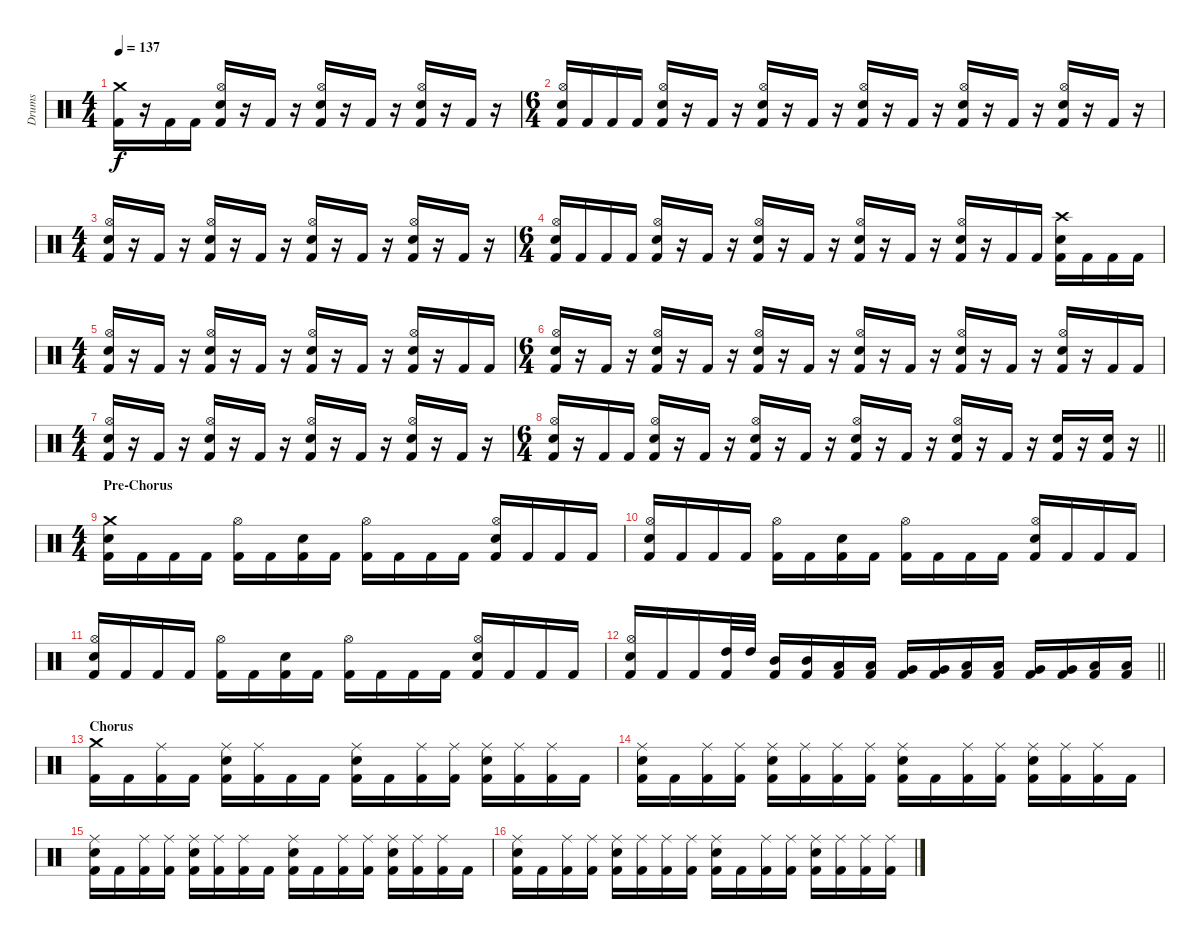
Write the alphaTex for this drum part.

\track ("Drums" "Drums") {instrument percussion}
\staff {score}
\articulation defaults
\ts (4 4)
\section ("" "")
\tempo 137
\clef neutral
\ks c
("Crash medium (hit)" "Kick (hit) 2").16{dy f} r.16 "Kick (hit) 2".16 "Kick (hit) 2".16 ("Hi-Hat (open)" "Electric Snare (hit)" "Kick (hit) 2").16 r.16 "Kick (hit) 2".16 r.16 ("Hi-Hat (open)" "Electric Snare (hit)" "Kick (hit) 2").16 r.16 "Kick (hit) 2".16 r.16 ("Hi-Hat (open)" "Electric Snare (hit)" "Kick (hit) 2").16 r.16 "Kick (hit) 2".16 r.16 |
\ts (6 4)
("Hi-Hat (open)" "Electric Snare (hit)" "Kick (hit) 2").16 "Kick (hit) 2".16 "Kick (hit) 2".16 "Kick (hit) 2".16 ("Hi-Hat (open)" "Electric Snare (hit)" "Kick (hit) 2").16 r.16 "Kick (hit) 2".16 r.16 ("Hi-Hat (open)" "Electric Snare (hit)" "Kick (hit) 2").16 r.16 "Kick (hit) 2".16 r.16 ("Hi-Hat (open)" "Electric Snare (hit)" "Kick (hit) 2").16 r.16 "Kick (hit) 2".16 r.16 ("Hi-Hat (open)" "Electric Snare (hit)" "Kick (hit) 2").16 r.16 "Kick (hit) 2".16 r.16 ("Hi-Hat (open)" "Electric Snare (hit)" "Kick (hit) 2").16 r.16 "Kick (hit) 2".16 r.16 |
\ts (4 4)
("Hi-Hat (open)" "Electric Snare (hit)" "Kick (hit) 2").16 r.16 "Kick (hit) 2".16 r.16 ("Hi-Hat (open)" "Electric Snare (hit)" "Kick (hit) 2").16 r.16 "Kick (hit) 2".16 r.16 ("Hi-Hat (open)" "Electric Snare (hit)" "Kick (hit) 2").16 r.16 "Kick (hit) 2".16 r.16 ("Hi-Hat (open)" "Electric Snare (hit)" "Kick (hit) 2").16 r.16 "Kick (hit) 2".16 r.16 |
\ts (6 4)
("Hi-Hat (open)" "Electric Snare (hit)" "Kick (hit) 2").16 "Kick (hit) 2".16 "Kick (hit) 2".16 "Kick (hit) 2".16 ("Hi-Hat (open)" "Electric Snare (hit)" "Kick (hit) 2").16 r.16 "Kick (hit) 2".16 r.16 ("Hi-Hat (open)" "Electric Snare (hit)" "Kick (hit) 2").16 r.16 "Kick (hit) 2".16 r.16 ("Hi-Hat (open)" "Electric Snare (hit)" "Kick (hit) 2").16 r.16 "Kick (hit) 2".16 r.16 ("Hi-Hat (open)" "Electric Snare (hit)" "Kick (hit) 2").16 r.16 "Kick (hit) 2".16 "Kick (hit) 2".16 ("Crash high (hit)" "Electric Snare (hit)" "Kick (hit) 2").16 "Kick (hit) 2".16 "Kick (hit) 2".16 "Kick (hit) 2".16 |
\ts (4 4)
("Hi-Hat (open)" "Electric Snare (hit)" "Kick (hit) 2").16 r.16 "Kick (hit) 2".16 r.16 ("Hi-Hat (open)" "Electric Snare (hit)" "Kick (hit) 2").16 r.16 "Kick (hit) 2".16 r.16 ("Hi-Hat (open)" "Electric Snare (hit)" "Kick (hit) 2").16 r.16 "Kick (hit) 2".16 r.16 ("Hi-Hat (open)" "Electric Snare (hit)" "Kick (hit) 2").16 r.16 "Kick (hit) 2".16 "Kick (hit) 2".16 |
\ts (6 4)
("Hi-Hat (open)" "Electric Snare (hit)" "Kick (hit) 2").16 r.16 "Kick (hit) 2".16 r.16 ("Hi-Hat (open)" "Electric Snare (hit)" "Kick (hit) 2").16 r.16 "Kick (hit) 2".16 r.16 ("Hi-Hat (open)" "Electric Snare (hit)" "Kick (hit) 2").16 r.16 "Kick (hit) 2".16 r.16 ("Hi-Hat (open)" "Electric Snare (hit)" "Kick (hit) 2").16 r.16 "Kick (hit) 2".16 r.16 ("Hi-Hat (open)" "Electric Snare (hit)" "Kick (hit) 2").16 r.16 "Kick (hit) 2".16 r.16 ("Hi-Hat (open)" "Electric Snare (hit)" "Kick (hit) 2").16 r.16 "Kick (hit) 2".16 "Kick (hit) 2".16 |
\ts (4 4)
("Hi-Hat (open)" "Electric Snare (hit)" "Kick (hit) 2").16 r.16 "Kick (hit) 2".16 r.16 ("Hi-Hat (open)" "Electric Snare (hit)" "Kick (hit) 2").16 r.16 "Kick (hit) 2".16 r.16 ("Hi-Hat (open)" "Electric Snare (hit)" "Kick (hit) 2").16 r.16 "Kick (hit) 2".16 r.16 ("Hi-Hat (open)" "Electric Snare (hit)" "Kick (hit) 2").16 r.16 "Kick (hit) 2".16 r.16 |
\ts (6 4)
\barLineRight lightlight
("Hi-Hat (open)" "Electric Snare (hit)" "Kick (hit) 2").16 r.16 "Kick (hit) 2".16 "Kick (hit) 2".16 ("Hi-Hat (open)" "Electric Snare (hit)" "Kick (hit) 2").16 r.16 "Kick (hit) 2".16 r.16 ("Hi-Hat (open)" "Electric Snare (hit)" "Kick (hit) 2").16 r.16 "Kick (hit) 2".16 r.16 ("Hi-Hat (open)" "Electric Snare (hit)" "Kick (hit) 2").16 r.16 "Kick (hit) 2".16 r.16 ("Hi-Hat (open)" "Electric Snare (hit)" "Kick (hit) 2").16 r.16 "Kick (hit) 2".16 r.16 ("Electric Snare (hit)" "Kick (hit) 2").16 r.16 ("Electric Snare (hit)" "Kick (hit) 2").16 r.16 |
\ts (4 4)
\section ("" "Pre-Chorus")
("Crash medium (hit)" "Electric Snare (hit)" "Kick (hit) 2").16 "Kick (hit) 2".16 "Kick (hit) 2".16 "Kick (hit) 2".16 ("Hi-Hat (open)" "Kick (hit) 2").16 "Kick (hit) 2".16 ("Electric Snare (hit)" "Kick (hit) 2").16 "Kick (hit) 2".16 ("Hi-Hat (open)" "Kick (hit) 2").16 "Kick (hit) 2".16 "Kick (hit) 2".16 "Kick (hit) 2".16 ("Hi-Hat (open)" "Electric Snare (hit)" "Kick (hit) 2").16 "Kick (hit) 2".16 "Kick (hit) 2".16 "Kick (hit) 2".16 |
("Hi-Hat (open)" "Electric Snare (hit)" "Kick (hit) 2").16 "Kick (hit) 2".16 "Kick (hit) 2".16 "Kick (hit) 2".16 ("Hi-Hat (open)" "Kick (hit) 2").16 "Kick (hit) 2".16 ("Electric Snare (hit)" "Kick (hit) 2").16 "Kick (hit) 2".16 ("Hi-Hat (open)" "Kick (hit) 2").16 "Kick (hit) 2".16 "Kick (hit) 2".16 "Kick (hit) 2".16 ("Hi-Hat (open)" "Electric Snare (hit)" "Kick (hit) 2").16 "Kick (hit) 2".16 "Kick (hit) 2".16 "Kick (hit) 2".16 |
("Hi-Hat (open)" "Electric Snare (hit)" "Kick (hit) 2").16 "Kick (hit) 2".16 "Kick (hit) 2".16 "Kick (hit) 2".16 ("Hi-Hat (open)" "Kick (hit) 2").16 "Kick (hit) 2".16 ("Electric Snare (hit)" "Kick (hit) 2").16 "Kick (hit) 2".16 ("Hi-Hat (open)" "Kick (hit) 2").16 "Kick (hit) 2".16 "Kick (hit) 2".16 "Kick (hit) 2".16 ("Hi-Hat (open)" "Electric Snare (hit)" "Kick (hit) 2").16 "Kick (hit) 2".16 "Kick (hit) 2".16 "Kick (hit) 2".16 |
\barLineRight lightlight
("Hi-Hat (open)" "Electric Snare (hit)" "Kick (hit) 2").16 "Kick (hit) 2".16 "Kick (hit) 2".16 ("High Tom (hit)" "Kick (hit) 2").32 "High Tom (hit)".32 ("Mid Tom (hit)" "Kick (hit) 2").16 ("Mid Tom (hit)" "Kick (hit) 2").16 ("Low Tom (hit)" "Kick (hit) 2").16 ("Low Tom (hit)" "Kick (hit) 2").16 ("Very Low Tom (hit)" "Kick (hit) 2").16 ("Very Low Tom (hit)" "Kick (hit) 2").16 ("Low Tom (hit)" "Kick (hit) 2").16 ("Low Tom (hit)" "Kick (hit) 2").16 ("Very Low Tom (hit)" "Kick (hit) 2").16 ("Very Low Tom (hit)" "Kick (hit) 2").16 ("Low Floor Tom (hit)" "Kick (hit) 2").16 ("Low Floor Tom (hit)" "Kick (hit) 2").16 |
\section ("" "Chorus")
("Crash medium (hit)" "Kick (hit) 2").16 "Kick (hit) 2".16 ("Ride (middle)" "Kick (hit) 2").16 "Kick (hit) 2".16 ("Ride (middle)" "Electric Snare (hit)" "Kick (hit) 2").16 ("Ride (middle)" "Kick (hit) 2").16 "Kick (hit) 2".16 "Kick (hit) 2".16 ("Ride (middle)" "Electric Snare (hit)" "Kick (hit) 2").16 "Kick (hit) 2".16 ("Ride (middle)" "Kick (hit) 2").16 ("Ride (middle)" "Kick (hit) 2").16 ("Ride (middle)" "Electric Snare (hit)" "Kick (hit) 2").16 ("Ride (middle)" "Kick (hit) 2").16 ("Ride (middle)" "Kick (hit) 2").16 "Kick (hit) 2".16 |
("Ride (middle)" "Electric Snare (hit)" "Kick (hit) 2").16 "Kick (hit) 2".16 ("Ride (middle)" "Kick (hit) 2").16 ("Ride (middle)" "Kick (hit) 2").16 ("Ride (middle)" "Electric Snare (hit)" "Kick (hit) 2").16 ("Ride (middle)" "Kick (hit) 2").16 ("Ride (middle)" "Kick (hit) 2").16 ("Ride (middle)" "Kick (hit) 2").16 ("Ride (middle)" "Electric Snare (hit)" "Kick (hit) 2").16 "Kick (hit) 2".16 ("Ride (middle)" "Kick (hit) 2").16 ("Ride (middle)" "Kick (hit) 2").16 ("Ride (middle)" "Electric Snare (hit)" "Kick (hit) 2").16 ("Ride (middle)" "Kick (hit) 2").16 ("Ride (middle)" "Kick (hit) 2").16 "Kick (hit) 2".16 |
("Ride (middle)" "Electric Snare (hit)" "Kick (hit) 2").16 "Kick (hit) 2".16 ("Ride (middle)" "Kick (hit) 2").16 ("Ride (middle)" "Kick (hit) 2").16 ("Ride (middle)" "Electric Snare (hit)" "Kick (hit) 2").16 ("Ride (middle)" "Kick (hit) 2").16 ("Ride (middle)" "Kick (hit) 2").16 "Kick (hit) 2".16 ("Ride (middle)" "Electric Snare (hit)" "Kick (hit) 2").16 "Kick (hit) 2".16 ("Ride (middle)" "Kick (hit) 2").16 ("Ride (middle)" "Kick (hit) 2").16 ("Ride (middle)" "Electric Snare (hit)" "Kick (hit) 2").16 ("Ride (middle)" "Kick (hit) 2").16 ("Ride (middle)" "Kick (hit) 2").16 "Kick (hit) 2".16 |
("Ride (middle)" "Electric Snare (hit)" "Kick (hit) 2").16 "Kick (hit) 2".16 ("Ride (middle)" "Kick (hit) 2").16 ("Ride (middle)" "Kick (hit) 2").16 ("Ride (middle)" "Electric Snare (hit)" "Kick (hit) 2").16 ("Ride (middle)" "Kick (hit) 2").16 ("Ride (middle)" "Kick (hit) 2").16 ("Ride (middle)" "Kick (hit) 2").16 ("Ride (middle)" "Electric Snare (hit)" "Kick (hit) 2").16 "Kick (hit) 2".16 ("Ride (middle)" "Kick (hit) 2").16 ("Ride (middle)" "Kick (hit) 2").16 ("Ride (middle)" "Electric Snare (hit)" "Kick (hit) 2").16 ("Ride (middle)" "Kick (hit) 2").16 ("Ride (middle)" "Kick (hit) 2").16 ("Ride (middle)" "Kick (hit) 2").16
